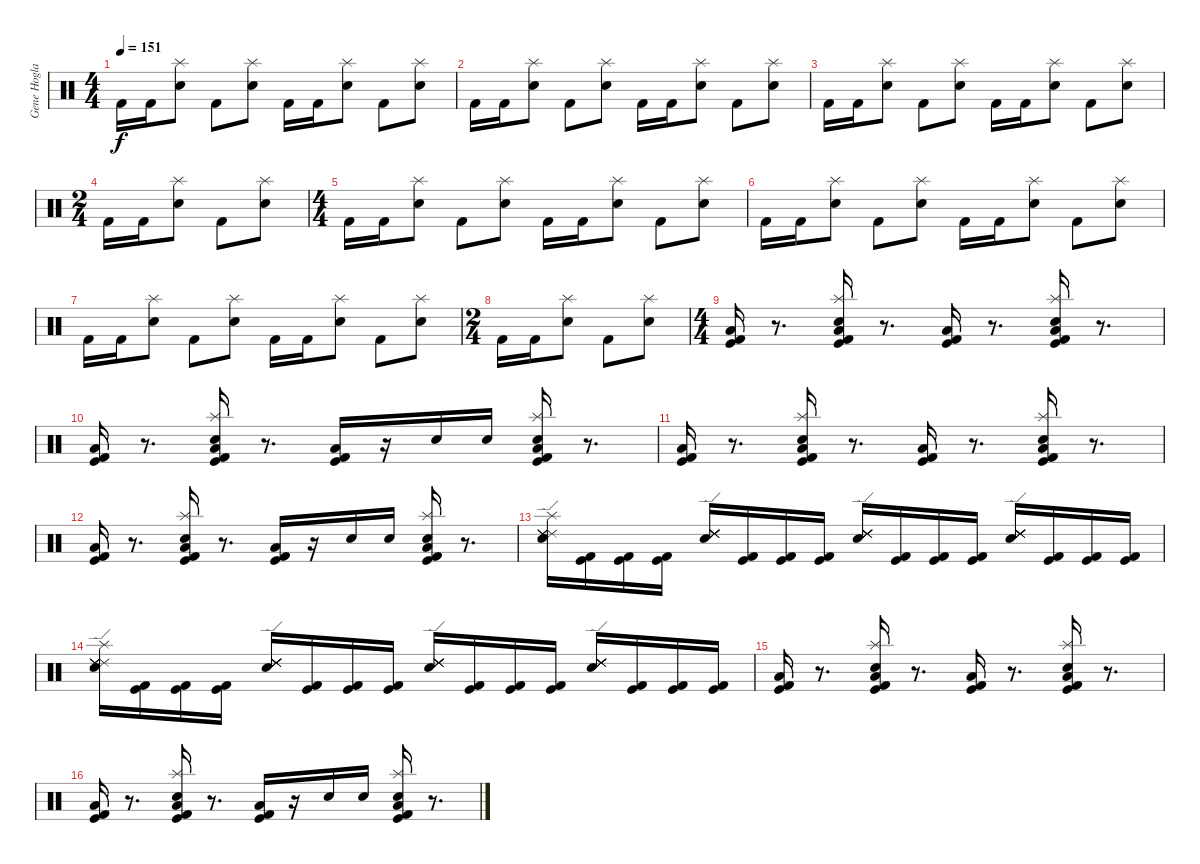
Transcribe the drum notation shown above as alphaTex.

\track ("Gene Hoglan" "Gene Hogla") {instrument percussion}
\staff {score}
\articulation defaults
\ts (4 4)
\tempo 151
\clef neutral
\ks c "Kick (hit) 2".16{dy f} "Kick (hit) 2".16
("Splash (hit)" "Snare (hit) 2").8 "Kick (hit) 2".8 ("Splash (hit)" "Snare (hit) 2").8 "Kick (hit) 2".16 "Kick (hit) 2".16 ("Splash (hit)" "Snare (hit) 2").8 "Kick (hit) 2".8 ("Splash (hit)" "Snare (hit) 2").8 |
"Kick (hit) 2".16 "Kick (hit) 2".16 ("Splash (hit)" "Snare (hit) 2").8 "Kick (hit) 2".8 ("Splash (hit)" "Snare (hit) 2").8 "Kick (hit) 2".16 "Kick (hit) 2".16 ("Splash (hit)" "Snare (hit) 2").8 "Kick (hit) 2".8 ("Splash (hit)" "Snare (hit) 2").8 |
"Kick (hit) 2".16 "Kick (hit) 2".16 ("Splash (hit)" "Snare (hit) 2").8 "Kick (hit) 2".8 ("Splash (hit)" "Snare (hit) 2").8 "Kick (hit) 2".16 "Kick (hit) 2".16 ("Splash (hit)" "Snare (hit) 2").8 "Kick (hit) 2".8 ("Splash (hit)" "Snare (hit) 2").8 |
\ts (2 4)
"Kick (hit) 2".16 "Kick (hit) 2".16 ("Splash (hit)" "Snare (hit) 2").8 "Kick (hit) 2".8 ("Splash (hit)" "Snare (hit) 2").8 |
\ts (4 4)
"Kick (hit) 2".16 "Kick (hit) 2".16 ("Splash (hit)" "Snare (hit) 2").8 "Kick (hit) 2".8 ("Splash (hit)" "Snare (hit) 2").8 "Kick (hit) 2".16 "Kick (hit) 2".16 ("Splash (hit)" "Snare (hit) 2").8 "Kick (hit) 2".8 ("Splash (hit)" "Snare (hit) 2").8 |
"Kick (hit) 2".16 "Kick (hit) 2".16 ("Splash (hit)" "Snare (hit) 2").8 "Kick (hit) 2".8 ("Splash (hit)" "Snare (hit) 2").8 "Kick (hit) 2".16 "Kick (hit) 2".16 ("Splash (hit)" "Snare (hit) 2").8 "Kick (hit) 2".8 ("Splash (hit)" "Snare (hit) 2").8 |
"Kick (hit) 2".16 "Kick (hit) 2".16 ("Splash (hit)" "Snare (hit) 2").8 "Kick (hit) 2".8 ("Splash (hit)" "Snare (hit) 2").8 "Kick (hit) 2".16 "Kick (hit) 2".16 ("Splash (hit)" "Snare (hit) 2").8 "Kick (hit) 2".8 ("Splash (hit)" "Snare (hit) 2").8 |
\ts (2 4)
"Kick (hit) 2".16 "Kick (hit) 2".16 ("Splash (hit)" "Snare (hit) 2").8 "Kick (hit) 2".8 ("Splash (hit)" "Snare (hit) 2").8 |
\ts (4 4)
("Low Floor Tom (hit)" "Kick (hit)" "Kick (hit) 2").16 r.8{d} ("Low Floor Tom (hit)" "Kick (hit)" "Splash (hit)" "Snare (hit) 2" "Kick (hit) 2").16 r.8{d} ("Low Floor Tom (hit)" "Kick (hit)" "Kick (hit) 2").16 r.8{d} ("Low Floor Tom (hit)" "Kick (hit)" "Splash (hit)" "Snare (hit) 2" "Kick (hit) 2").16 r.8{d} |
("Low Floor Tom (hit)" "Kick (hit)" "Kick (hit) 2").16 r.8{d} ("Low Floor Tom (hit)" "Kick (hit)" "Splash (hit)" "Snare (hit) 2" "Kick (hit) 2").16 r.8{d} ("Low Floor Tom (hit)" "Kick (hit)" "Kick (hit) 2").16 r.16 "Snare (hit) 2".16 "Snare (hit) 2".16 ("Low Floor Tom (hit)" "Kick (hit)" "Splash (hit)" "Snare (hit) 2" "Kick (hit) 2").16 r.8{d} |
("Low Floor Tom (hit)" "Kick (hit)" "Kick (hit) 2").16 r.8{d} ("Kick (hit)" "Low Floor Tom (hit)" "Splash (hit)" "Snare (hit) 2" "Kick (hit) 2").16 r.8{d} ("Kick (hit)" "Low Floor Tom (hit)" "Kick (hit) 2").16 r.8{d} ("Kick (hit)" "Low Floor Tom (hit)" "Splash (hit)" "Snare (hit) 2" "Kick (hit) 2").16 r.8{d} |
("Low Floor Tom (hit)" "Kick (hit)" "Kick (hit) 2").16 r.8{d} ("Kick (hit)" "Low Floor Tom (hit)" "Splash (hit)" "Snare (hit) 2" "Kick (hit) 2").16 r.8{d} ("Low Floor Tom (hit)" "Kick (hit)" "Kick (hit) 2").16 r.16 "Snare (hit) 2".16 "Snare (hit) 2".16 ("Low Floor Tom (hit)" "Kick (hit)" "Splash (hit)" "Snare (hit) 2" "Kick (hit) 2").16 r.8{d} |
("Splash (hit)" "Electric Snare (hit)" "Ride (edge) 2" "Ride (edge) 2" "Ride (edge) 2" "Ride (edge) 2").16 ("Kick (hit)" "Kick (hit) 2").16 ("Kick (hit)" "Kick (hit) 2").16 ("Kick (hit)" "Kick (hit) 2").16 ("Ride (edge) 2" "Electric Snare (hit)" "Ride (edge) 2" "Ride (edge) 2" "Ride (edge) 2" "Ride (edge) 2").16 ("Kick (hit)" "Kick (hit) 2").16 ("Kick (hit)" "Kick (hit) 2").16 ("Kick (hit)" "Kick (hit) 2").16 ("Ride (edge) 2" "Electric Snare (hit)" "Ride (edge) 2" "Ride (edge) 2" "Ride (edge) 2" "Ride (edge) 2").16 ("Kick (hit)" "Kick (hit) 2").16 ("Kick (hit) 2" "Kick (hit)").16 ("Kick (hit)" "Kick (hit) 2").16 ("Ride (edge) 2" "Electric Snare (hit)" "Ride (edge) 2" "Ride (edge) 2" "Ride (edge) 2" "Ride (edge) 2").16 ("Kick (hit)" "Kick (hit) 2").16 ("Kick (hit)" "Kick (hit) 2").16 ("Kick (hit)" "Kick (hit) 2").16 |
("Splash (hit)" "Electric Snare (hit)" "Ride (edge) 2" "Ride (edge) 2" "Ride (edge) 2" "Ride (edge) 2").16 ("Kick (hit)" "Kick (hit) 2").16 ("Kick (hit)" "Kick (hit) 2").16 ("Kick (hit)" "Kick (hit) 2").16 ("Ride (edge) 2" "Electric Snare (hit)" "Ride (edge) 2" "Ride (edge) 2" "Ride (edge) 2" "Ride (edge) 2").16 ("Kick (hit)" "Kick (hit) 2").16 ("Kick (hit)" "Kick (hit) 2").16 ("Kick (hit)" "Kick (hit) 2").16 ("Ride (edge) 2" "Electric Snare (hit)" "Ride (edge) 2" "Ride (edge) 2" "Ride (edge) 2" "Ride (edge) 2").16 ("Kick (hit)" "Kick (hit) 2").16 ("Kick (hit) 2" "Kick (hit)").16 ("Kick (hit)" "Kick (hit) 2").16 ("Ride (edge) 2" "Electric Snare (hit)" "Ride (edge) 2" "Ride (edge) 2" "Ride (edge) 2" "Ride (edge) 2").16 ("Kick (hit)" "Kick (hit) 2").16 ("Kick (hit)" "Kick (hit) 2").16 ("Kick (hit)" "Kick (hit) 2").16 |
("Low Floor Tom (hit)" "Kick (hit)" "Kick (hit) 2").16 r.8{d} ("Low Floor Tom (hit)" "Kick (hit)" "Splash (hit)" "Snare (hit) 2" "Kick (hit) 2").16 r.8{d} ("Low Floor Tom (hit)" "Kick (hit)" "Kick (hit) 2").16 r.8{d} ("Low Floor Tom (hit)" "Kick (hit)" "Splash (hit)" "Snare (hit) 2" "Kick (hit) 2").16 r.8{d} |
("Low Floor Tom (hit)" "Kick (hit)" "Kick (hit) 2").16 r.8{d} ("Low Floor Tom (hit)" "Kick (hit)" "Splash (hit)" "Snare (hit) 2" "Kick (hit) 2").16 r.8{d} ("Low Floor Tom (hit)" "Kick (hit)" "Kick (hit) 2").16 r.16 "Snare (hit) 2".16 "Snare (hit) 2".16 ("Low Floor Tom (hit)" "Kick (hit)" "Splash (hit)" "Snare (hit) 2" "Kick (hit) 2").16 r.8{d}
